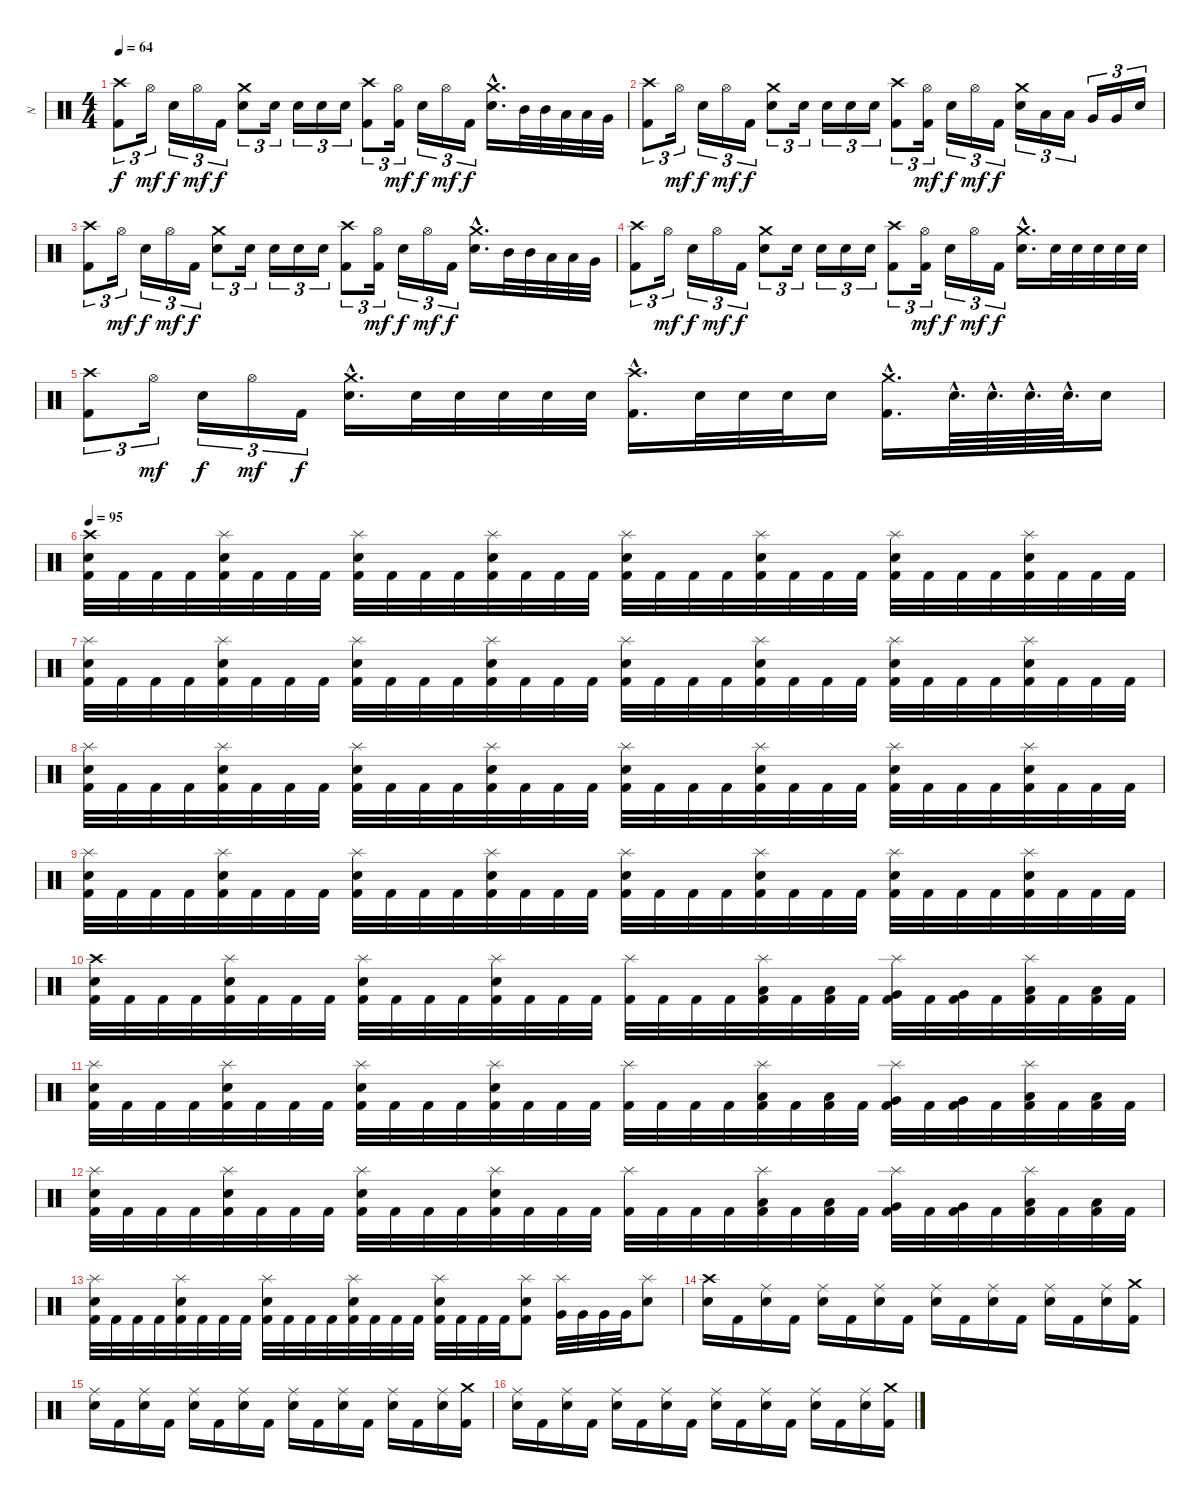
\track ("N" "N") {instrument percussion}
\staff {score}
\articulation defaults
\ts (4 4)
\tempo 64
\clef neutral
\ks c
("Crash high (hit)" "Kick (hit) 2").8{tu (3 2) dy f} "Hi-Hat (open)".16{tu (3 2) dy mf} "Electric Snare (hit)".16{tu (3 2) dy f} "Hi-Hat (open)".16{tu (3 2) dy mf} "Kick (hit) 2".16{tu (3 2) dy f} ("Crash medium (hit)" "Electric Snare (hit)").8{tu (3 2)} "Electric Snare (hit)".16{tu (3 2)} "Electric Snare (hit)".16{tu (3 2)} "Electric Snare (hit)".16{tu (3 2)} "Electric Snare (hit)".16{tu (3 2)} ("Crash high (hit)" "Kick (hit) 2").8{tu (3 2)} ("Hi-Hat (open)" "Kick (hit) 2").16{tu (3 2) dy mf} "Electric Snare (hit)".16{tu (3 2) dy f} "Hi-Hat (open)".16{tu (3 2) dy mf} "Kick (hit) 2".16{tu (3 2) dy f} ("Crash medium (hit)"{hac} "Electric Snare (hit)"{hac}).16{d} "Mid Tom (hit)".32 "Mid Tom (hit)".32 "Low Tom (hit)".32 "Low Tom (hit)".32 "Very Low Tom (hit)".32 |
("Crash high (hit)" "Kick (hit) 2").8{tu (3 2)} "Hi-Hat (open)".16{tu (3 2) dy mf} "Electric Snare (hit)".16{tu (3 2) dy f} "Hi-Hat (open)".16{tu (3 2) dy mf} "Kick (hit) 2".16{tu (3 2) dy f} ("Crash medium (hit)" "Electric Snare (hit)").8{tu (3 2)} "Electric Snare (hit)".16{tu (3 2)} "Electric Snare (hit)".16{tu (3 2)} "Electric Snare (hit)".16{tu (3 2)} "Electric Snare (hit)".16{tu (3 2)} ("Crash high (hit)" "Kick (hit) 2").8{tu (3 2)} ("Hi-Hat (open)" "Kick (hit) 2").16{tu (3 2) dy mf} "Electric Snare (hit)".16{tu (3 2) dy f} "Hi-Hat (open)".16{tu (3 2) dy mf} "Kick (hit) 2".16{tu (3 2) dy f} ("Crash medium (hit)" "Electric Snare (hit)").16{tu (3 2)} "Low Tom (hit)".16{tu (3 2)} "Low Tom (hit)".16{tu (3 2)} "Very Low Tom (hit)".16{tu (3 2)} "Very Low Tom (hit)".16{tu (3 2)} "Electric Snare (hit)".16{tu (3 2)} |
("Crash high (hit)" "Kick (hit) 2").8{tu (3 2)} "Hi-Hat (open)".16{tu (3 2) dy mf} "Electric Snare (hit)".16{tu (3 2) dy f} "Hi-Hat (open)".16{tu (3 2) dy mf} "Kick (hit) 2".16{tu (3 2) dy f} ("Crash medium (hit)" "Electric Snare (hit)").8{tu (3 2)} "Electric Snare (hit)".16{tu (3 2)} "Electric Snare (hit)".16{tu (3 2)} "Electric Snare (hit)".16{tu (3 2)} "Electric Snare (hit)".16{tu (3 2)} ("Crash high (hit)" "Kick (hit) 2").8{tu (3 2)} ("Hi-Hat (open)" "Kick (hit) 2").16{tu (3 2) dy mf} "Electric Snare (hit)".16{tu (3 2) dy f} "Hi-Hat (open)".16{tu (3 2) dy mf} "Kick (hit) 2".16{tu (3 2) dy f} ("Crash medium (hit)"{hac} "Electric Snare (hit)"{hac}).16{d} "Mid Tom (hit)".32 "Mid Tom (hit)".32 "Low Tom (hit)".32 "Low Tom (hit)".32 "Very Low Tom (hit)".32 |
("Crash high (hit)" "Kick (hit) 2").8{tu (3 2)} "Hi-Hat (open)".16{tu (3 2) dy mf} "Electric Snare (hit)".16{tu (3 2) dy f} "Hi-Hat (open)".16{tu (3 2) dy mf} "Kick (hit) 2".16{tu (3 2) dy f} ("Crash medium (hit)" "Electric Snare (hit)").8{tu (3 2)} "Electric Snare (hit)".16{tu (3 2)} "Electric Snare (hit)".16{tu (3 2)} "Electric Snare (hit)".16{tu (3 2)} "Electric Snare (hit)".16{tu (3 2)} ("Crash high (hit)" "Kick (hit) 2").8{tu (3 2)} ("Hi-Hat (open)" "Kick (hit) 2").16{tu (3 2) dy mf} "Electric Snare (hit)".16{tu (3 2) dy f} "Hi-Hat (open)".16{tu (3 2) dy mf} "Kick (hit) 2".16{tu (3 2) dy f} ("Crash medium (hit)"{hac} "Electric Snare (hit)"{hac}).16{d} "Electric Snare (hit)".32 "Electric Snare (hit)".32 "Electric Snare (hit)".32 "Electric Snare (hit)".32 "Electric Snare (hit)".32 |
("Crash high (hit)" "Kick (hit) 2").8{tu (3 2)} "Hi-Hat (open)".16{tu (3 2) dy mf} "Electric Snare (hit)".16{tu (3 2) dy f} "Hi-Hat (open)".16{tu (3 2) dy mf} "Kick (hit) 2".16{tu (3 2) dy f} ("Crash medium (hit)"{hac} "Electric Snare (hit)"{hac}).16{d} "Electric Snare (hit)".32 "Electric Snare (hit)".32 "Electric Snare (hit)".32 "Electric Snare (hit)".32 "Electric Snare (hit)".32 ("Crash high (hit)"{hac} "Kick (hit) 2"{hac}).16{d} "Electric Snare (hit)".32 "Electric Snare (hit)".32 "Electric Snare (hit)".32 "Electric Snare (hit)".16 ("Crash medium (hit)"{hac} "Kick (hit) 2"{hac}).16{d} "Electric Snare (hit)"{hac}.64{d} "Electric Snare (hit)"{hac}.64{d} "Electric Snare (hit)"{hac}.64{d} "Electric Snare (hit)"{hac}.64{d} "Electric Snare (hit)".16 |
\section ("" " ")
\tempo 95
("Crash high (hit)" "Electric Snare (hit)" "Kick (hit) 2").32 "Kick (hit) 2".32 "Kick (hit) 2".32 "Kick (hit) 2".32 ("Splash (hit)" "Electric Snare (hit)" "Kick (hit) 2").32 "Kick (hit) 2".32 "Kick (hit) 2".32 "Kick (hit) 2".32 ("Splash (hit)" "Electric Snare (hit)" "Kick (hit) 2").32 "Kick (hit) 2".32 "Kick (hit) 2".32 "Kick (hit) 2".32 ("Splash (hit)" "Electric Snare (hit)" "Kick (hit) 2").32 "Kick (hit) 2".32 "Kick (hit) 2".32 "Kick (hit) 2".32 ("Splash (hit)" "Electric Snare (hit)" "Kick (hit) 2").32 "Kick (hit) 2".32 "Kick (hit) 2".32 "Kick (hit) 2".32 ("Splash (hit)" "Electric Snare (hit)" "Kick (hit) 2").32 "Kick (hit) 2".32 "Kick (hit) 2".32 "Kick (hit) 2".32 ("Splash (hit)" "Electric Snare (hit)" "Kick (hit) 2").32 "Kick (hit) 2".32 "Kick (hit) 2".32 "Kick (hit) 2".32 ("Splash (hit)" "Electric Snare (hit)" "Kick (hit) 2").32 "Kick (hit) 2".32 "Kick (hit) 2".32 "Kick (hit) 2".32 |
("Splash (hit)" "Electric Snare (hit)" "Kick (hit) 2").32 "Kick (hit) 2".32 "Kick (hit) 2".32 "Kick (hit) 2".32 ("Splash (hit)" "Electric Snare (hit)" "Kick (hit) 2").32 "Kick (hit) 2".32 "Kick (hit) 2".32 "Kick (hit) 2".32 ("Splash (hit)" "Electric Snare (hit)" "Kick (hit) 2").32 "Kick (hit) 2".32 "Kick (hit) 2".32 "Kick (hit) 2".32 ("Splash (hit)" "Electric Snare (hit)" "Kick (hit) 2").32 "Kick (hit) 2".32 "Kick (hit) 2".32 "Kick (hit) 2".32 ("Splash (hit)" "Electric Snare (hit)" "Kick (hit) 2").32 "Kick (hit) 2".32 "Kick (hit) 2".32 "Kick (hit) 2".32 ("Splash (hit)" "Electric Snare (hit)" "Kick (hit) 2").32 "Kick (hit) 2".32 "Kick (hit) 2".32 "Kick (hit) 2".32 ("Splash (hit)" "Electric Snare (hit)" "Kick (hit) 2").32 "Kick (hit) 2".32 "Kick (hit) 2".32 "Kick (hit) 2".32 ("Splash (hit)" "Electric Snare (hit)" "Kick (hit) 2").32 "Kick (hit) 2".32 "Kick (hit) 2".32 "Kick (hit) 2".32 |
("Splash (hit)" "Electric Snare (hit)" "Kick (hit) 2").32 "Kick (hit) 2".32 "Kick (hit) 2".32 "Kick (hit) 2".32 ("Splash (hit)" "Electric Snare (hit)" "Kick (hit) 2").32 "Kick (hit) 2".32 "Kick (hit) 2".32 "Kick (hit) 2".32 ("Splash (hit)" "Electric Snare (hit)" "Kick (hit) 2").32 "Kick (hit) 2".32 "Kick (hit) 2".32 "Kick (hit) 2".32 ("Splash (hit)" "Electric Snare (hit)" "Kick (hit) 2").32 "Kick (hit) 2".32 "Kick (hit) 2".32 "Kick (hit) 2".32 ("Splash (hit)" "Electric Snare (hit)" "Kick (hit) 2").32 "Kick (hit) 2".32 "Kick (hit) 2".32 "Kick (hit) 2".32 ("Splash (hit)" "Electric Snare (hit)" "Kick (hit) 2").32 "Kick (hit) 2".32 "Kick (hit) 2".32 "Kick (hit) 2".32 ("Splash (hit)" "Electric Snare (hit)" "Kick (hit) 2").32 "Kick (hit) 2".32 "Kick (hit) 2".32 "Kick (hit) 2".32 ("Splash (hit)" "Electric Snare (hit)" "Kick (hit) 2").32 "Kick (hit) 2".32 "Kick (hit) 2".32 "Kick (hit) 2".32 |
("Splash (hit)" "Electric Snare (hit)" "Kick (hit) 2").32 "Kick (hit) 2".32 "Kick (hit) 2".32 "Kick (hit) 2".32 ("Splash (hit)" "Electric Snare (hit)" "Kick (hit) 2").32 "Kick (hit) 2".32 "Kick (hit) 2".32 "Kick (hit) 2".32 ("Splash (hit)" "Electric Snare (hit)" "Kick (hit) 2").32 "Kick (hit) 2".32 "Kick (hit) 2".32 "Kick (hit) 2".32 ("Splash (hit)" "Electric Snare (hit)" "Kick (hit) 2").32 "Kick (hit) 2".32 "Kick (hit) 2".32 "Kick (hit) 2".32 ("Splash (hit)" "Electric Snare (hit)" "Kick (hit) 2").32 "Kick (hit) 2".32 "Kick (hit) 2".32 "Kick (hit) 2".32 ("Splash (hit)" "Electric Snare (hit)" "Kick (hit) 2").32 "Kick (hit) 2".32 "Kick (hit) 2".32 "Kick (hit) 2".32 ("Splash (hit)" "Electric Snare (hit)" "Kick (hit) 2").32 "Kick (hit) 2".32 "Kick (hit) 2".32 "Kick (hit) 2".32 ("Splash (hit)" "Electric Snare (hit)" "Kick (hit) 2").32 "Kick (hit) 2".32 "Kick (hit) 2".32 "Kick (hit) 2".32 |
("Crash high (hit)" "Electric Snare (hit)" "Kick (hit) 2").32 "Kick (hit) 2".32 "Kick (hit) 2".32 "Kick (hit) 2".32 ("Splash (hit)" "Electric Snare (hit)" "Kick (hit) 2").32 "Kick (hit) 2".32 "Kick (hit) 2".32 "Kick (hit) 2".32 ("Splash (hit)" "Electric Snare (hit)" "Kick (hit) 2").32 "Kick (hit) 2".32 "Kick (hit) 2".32 "Kick (hit) 2".32 ("Splash (hit)" "Electric Snare (hit)" "Kick (hit) 2").32 "Kick (hit) 2".32 "Kick (hit) 2".32 "Kick (hit) 2".32 ("Splash (hit)" "Kick (hit) 2").32 "Kick (hit) 2".32 "Kick (hit) 2".32 "Kick (hit) 2".32 ("Splash (hit)" "Low Tom (hit)" "Kick (hit) 2").32 "Kick (hit) 2".32 ("Low Tom (hit)" "Kick (hit) 2").32 "Kick (hit) 2".32 ("Splash (hit)" "Very Low Tom (hit)" "Kick (hit) 2").32 "Kick (hit) 2".32 ("Very Low Tom (hit)" "Kick (hit) 2").32 "Kick (hit) 2".32 ("Splash (hit)" "Low Floor Tom (hit)" "Kick (hit) 2").32 "Kick (hit) 2".32 ("Low Floor Tom (hit)" "Kick (hit) 2").32 "Kick (hit) 2".32 |
("Splash (hit)" "Electric Snare (hit)" "Kick (hit) 2").32 "Kick (hit) 2".32 "Kick (hit) 2".32 "Kick (hit) 2".32 ("Splash (hit)" "Electric Snare (hit)" "Kick (hit) 2").32 "Kick (hit) 2".32 "Kick (hit) 2".32 "Kick (hit) 2".32 ("Splash (hit)" "Electric Snare (hit)" "Kick (hit) 2").32 "Kick (hit) 2".32 "Kick (hit) 2".32 "Kick (hit) 2".32 ("Splash (hit)" "Electric Snare (hit)" "Kick (hit) 2").32 "Kick (hit) 2".32 "Kick (hit) 2".32 "Kick (hit) 2".32 ("Splash (hit)" "Kick (hit) 2").32 "Kick (hit) 2".32 "Kick (hit) 2".32 "Kick (hit) 2".32 ("Splash (hit)" "Low Tom (hit)" "Kick (hit) 2").32 "Kick (hit) 2".32 ("Low Tom (hit)" "Kick (hit) 2").32 "Kick (hit) 2".32 ("Splash (hit)" "Very Low Tom (hit)" "Kick (hit) 2").32 "Kick (hit) 2".32 ("Very Low Tom (hit)" "Kick (hit) 2").32 "Kick (hit) 2".32 ("Splash (hit)" "Low Floor Tom (hit)" "Kick (hit) 2").32 "Kick (hit) 2".32 ("Low Floor Tom (hit)" "Kick (hit) 2").32 "Kick (hit) 2".32 |
("Splash (hit)" "Electric Snare (hit)" "Kick (hit) 2").32 "Kick (hit) 2".32 "Kick (hit) 2".32 "Kick (hit) 2".32 ("Splash (hit)" "Electric Snare (hit)" "Kick (hit) 2").32 "Kick (hit) 2".32 "Kick (hit) 2".32 "Kick (hit) 2".32 ("Splash (hit)" "Electric Snare (hit)" "Kick (hit) 2").32 "Kick (hit) 2".32 "Kick (hit) 2".32 "Kick (hit) 2".32 ("Splash (hit)" "Electric Snare (hit)" "Kick (hit) 2").32 "Kick (hit) 2".32 "Kick (hit) 2".32 "Kick (hit) 2".32 ("Splash (hit)" "Kick (hit) 2").32 "Kick (hit) 2".32 "Kick (hit) 2".32 "Kick (hit) 2".32 ("Splash (hit)" "Low Tom (hit)" "Kick (hit) 2").32 "Kick (hit) 2".32 ("Low Tom (hit)" "Kick (hit) 2").32 "Kick (hit) 2".32 ("Splash (hit)" "Very Low Tom (hit)" "Kick (hit) 2").32 "Kick (hit) 2".32 ("Very Low Tom (hit)" "Kick (hit) 2").32 "Kick (hit) 2".32 ("Splash (hit)" "Low Floor Tom (hit)" "Kick (hit) 2").32 "Kick (hit) 2".32 ("Low Floor Tom (hit)" "Kick (hit) 2").32 "Kick (hit) 2".32 |
("Splash (hit)" "Electric Snare (hit)" "Kick (hit) 2").32 "Kick (hit) 2".32 "Kick (hit) 2".32 "Kick (hit) 2".32 ("Splash (hit)" "Electric Snare (hit)" "Kick (hit) 2").32 "Kick (hit) 2".32 "Kick (hit) 2".32 "Kick (hit) 2".32 ("Splash (hit)" "Electric Snare (hit)" "Kick (hit) 2").32 "Kick (hit) 2".32 "Kick (hit) 2".32 "Kick (hit) 2".32 ("Splash (hit)" "Electric Snare (hit)" "Kick (hit) 2").32 "Kick (hit) 2".32 "Kick (hit) 2".32 "Kick (hit) 2".32 ("Splash (hit)" "Electric Snare (hit)" "Kick (hit) 2").32 "Kick (hit) 2".32 "Kick (hit) 2".32 "Kick (hit) 2".32 ("Splash (hit)" "Electric Snare (hit)" "Kick (hit) 2").8 ("Splash (hit)" "Very Low Tom (hit)").32 "Very Low Tom (hit)".32 "Very Low Tom (hit)".32 "Very Low Tom (hit)".32 ("Splash (hit)" "Electric Snare (hit)").8 |
\section ("" " ")
("Crash high (hit)" "Electric Snare (hit)").16 "Kick (hit) 2".16 ("Ride (middle)" "Electric Snare (hit)").16 "Kick (hit) 2".16 ("Ride (middle)" "Electric Snare (hit)").16 "Kick (hit) 2".16 ("Ride (middle)" "Electric Snare (hit)").16 "Kick (hit) 2".16 ("Ride (middle)" "Electric Snare (hit)").16 "Kick (hit) 2".16 ("Ride (middle)" "Electric Snare (hit)").16 "Kick (hit) 2".16 ("Ride (middle)" "Electric Snare (hit)").16 "Kick (hit) 2".16 ("Ride (middle)" "Electric Snare (hit)").16 ("Crash medium (hit)" "Kick (hit) 2").16 |
("Ride (middle)" "Electric Snare (hit)").16 "Kick (hit) 2".16 ("Ride (middle)" "Electric Snare (hit)").16 "Kick (hit) 2".16 ("Ride (middle)" "Electric Snare (hit)").16 "Kick (hit) 2".16 ("Ride (middle)" "Electric Snare (hit)").16 "Kick (hit) 2".16 ("Ride (middle)" "Electric Snare (hit)").16 "Kick (hit) 2".16 ("Ride (middle)" "Electric Snare (hit)").16 "Kick (hit) 2".16 ("Ride (middle)" "Electric Snare (hit)").16 "Kick (hit) 2".16 ("Ride (middle)" "Electric Snare (hit)").16 ("Crash medium (hit)" "Kick (hit) 2").16 |
("Ride (middle)" "Electric Snare (hit)").16 "Kick (hit) 2".16 ("Ride (middle)" "Electric Snare (hit)").16 "Kick (hit) 2".16 ("Ride (middle)" "Electric Snare (hit)").16 "Kick (hit) 2".16 ("Ride (middle)" "Electric Snare (hit)").16 "Kick (hit) 2".16 ("Ride (middle)" "Electric Snare (hit)").16 "Kick (hit) 2".16 ("Ride (middle)" "Electric Snare (hit)").16 "Kick (hit) 2".16 ("Ride (middle)" "Electric Snare (hit)").16 "Kick (hit) 2".16 ("Ride (middle)" "Electric Snare (hit)").16 ("Crash medium (hit)" "Kick (hit) 2").16
